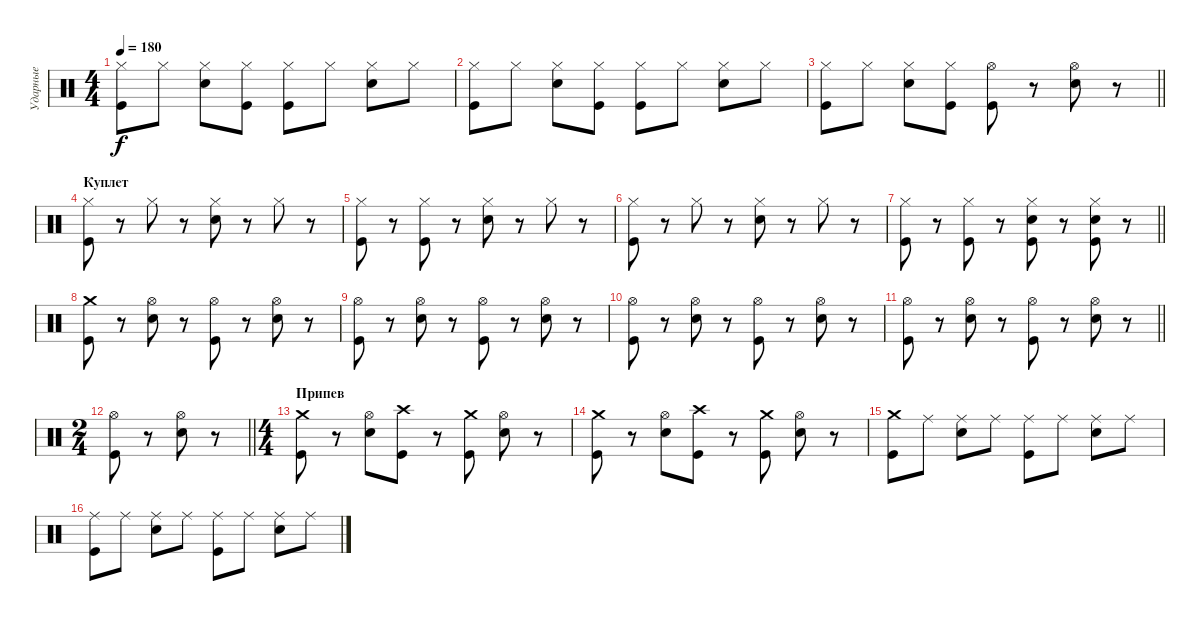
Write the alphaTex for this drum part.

\track ("Ударные" "Ударные") {instrument percussion}
\staff {score}
\articulation defaults
\ts (4 4)
\tempo 180
\clef neutral
\ks c
("Hi-Hat (closed)" "Kick (hit)").8{dy f} "Hi-Hat (closed)".8 ("Hi-Hat (closed)" "Electric Snare (hit)").8 ("Hi-Hat (closed)" "Kick (hit)").8 ("Hi-Hat (closed)" "Kick (hit)").8 "Hi-Hat (closed)".8 ("Hi-Hat (closed)" "Electric Snare (hit)").8 "Hi-Hat (closed)".8 |
("Hi-Hat (closed)" "Kick (hit)").8 "Hi-Hat (closed)".8 ("Hi-Hat (closed)" "Electric Snare (hit)").8 ("Hi-Hat (closed)" "Kick (hit)").8 ("Hi-Hat (closed)" "Kick (hit)").8 "Hi-Hat (closed)".8 ("Hi-Hat (closed)" "Electric Snare (hit)").8 "Hi-Hat (closed)".8 |
\barLineRight lightlight
("Hi-Hat (closed)" "Kick (hit)").8 "Hi-Hat (closed)".8 ("Hi-Hat (closed)" "Electric Snare (hit)").8 ("Hi-Hat (closed)" "Kick (hit)").8 ("Hi-Hat (open)" "Kick (hit)").8 r.8 ("Hi-Hat (open)" "Electric Snare (hit)").8 r.8 |
\section ("" "Куплет")
("Hi-Hat (closed)" "Kick (hit)").8 r.8 "Hi-Hat (closed)".8 r.8 ("Hi-Hat (closed)" "Electric Snare (hit)").8 r.8 "Hi-Hat (closed)".8 r.8 |
("Hi-Hat (closed)" "Kick (hit)").8 r.8 ("Hi-Hat (closed)" "Kick (hit)").8 r.8 ("Hi-Hat (closed)" "Electric Snare (hit)").8 r.8 "Hi-Hat (closed)".8 r.8 |
("Hi-Hat (closed)" "Kick (hit)").8 r.8 "Hi-Hat (closed)".8 r.8 ("Hi-Hat (closed)" "Electric Snare (hit)").8 r.8 "Hi-Hat (closed)".8 r.8 |
\barLineRight lightlight
("Hi-Hat (closed)" "Kick (hit)").8 r.8 ("Hi-Hat (closed)" "Kick (hit)").8 r.8 ("Hi-Hat (closed)" "Electric Snare (hit)" "Kick (hit)").8 r.8 ("Hi-Hat (closed)" "Electric Snare (hit)" "Kick (hit)").8 r.8 |
\section ("" " ")
("Crash medium (hit)" "Kick (hit)").8 r.8 ("Hi-Hat (open)" "Electric Snare (hit)").8 r.8 ("Hi-Hat (open)" "Kick (hit)").8 r.8 ("Hi-Hat (open)" "Electric Snare (hit)").8 r.8 |
("Hi-Hat (open)" "Kick (hit)").8 r.8 ("Hi-Hat (open)" "Electric Snare (hit)").8 r.8 ("Hi-Hat (open)" "Kick (hit)").8 r.8 ("Hi-Hat (open)" "Electric Snare (hit)").8 r.8 |
("Hi-Hat (open)" "Kick (hit)").8 r.8 ("Hi-Hat (open)" "Electric Snare (hit)").8 r.8 ("Hi-Hat (open)" "Kick (hit)").8 r.8 ("Hi-Hat (open)" "Electric Snare (hit)").8 r.8 |
\barLineRight lightlight
("Hi-Hat (open)" "Kick (hit)").8 r.8 ("Hi-Hat (open)" "Electric Snare (hit)").8 r.8 ("Hi-Hat (open)" "Kick (hit)").8 r.8 ("Hi-Hat (open)" "Electric Snare (hit)").8 r.8 |
\ts (2 4)
\barLineRight lightlight
("Hi-Hat (open)" "Kick (hit)").8 r.8 ("Hi-Hat (open)" "Electric Snare (hit)").8 r.8 |
\ts (4 4)
\section ("" "Припев")
("Crash medium (hit)" "Kick (hit)").8 r.8 ("Hi-Hat (open)" "Electric Snare (hit)").8 ("Crash high (hit)" "Kick (hit)").8 r.8 ("Crash medium (hit)" "Kick (hit)").8 ("Hi-Hat (open)" "Electric Snare (hit)").8 r.8 |
("Crash medium (hit)" "Kick (hit)").8 r.8 ("Hi-Hat (open)" "Electric Snare (hit)").8 ("Crash high (hit)" "Kick (hit)").8 r.8 ("Crash medium (hit)" "Kick (hit)").8 ("Hi-Hat (open)" "Electric Snare (hit)").8 r.8 |
("Crash medium (hit)" "Kick (hit)").8 "Ride (middle)".8 ("Ride (middle)" "Electric Snare (hit)").8 "Ride (middle)".8 ("Ride (middle)" "Kick (hit)").8 "Ride (middle)".8 ("Ride (middle)" "Electric Snare (hit)").8 "Ride (middle)".8 |
("Ride (middle)" "Kick (hit)").8 "Ride (middle)".8 ("Ride (middle)" "Electric Snare (hit)").8 "Ride (middle)".8 ("Ride (middle)" "Kick (hit)").8 "Ride (middle)".8 ("Ride (middle)" "Electric Snare (hit)").8 "Ride (middle)".8
